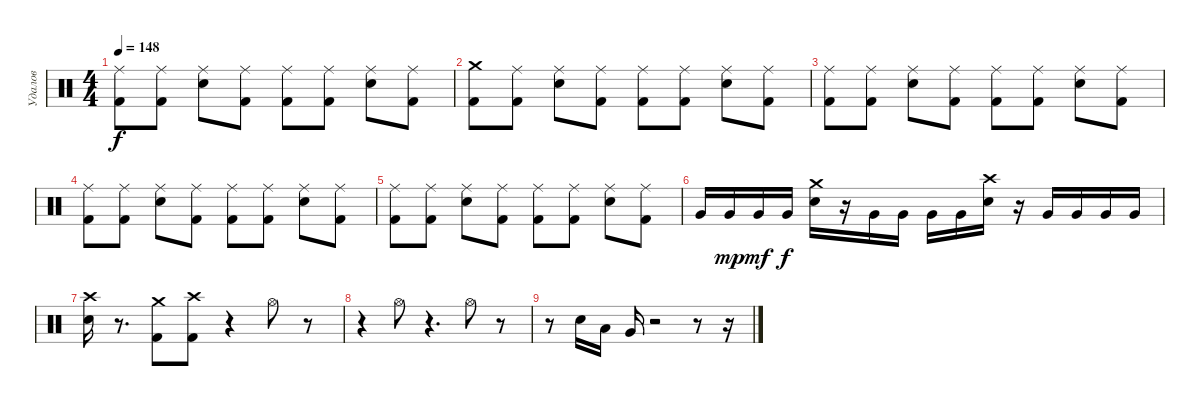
\track ("Удалов" "Удалов") {instrument percussion}
\staff {score}
\articulation defaults
\ts (4 4)
\tempo 148
\clef neutral
\ks c
("Kick (hit) 2" "Ride (middle)").8{dy f} ("Ride (middle)" "Kick (hit) 2").8 ("Ride (middle)" "Snare (hit) 2").8 ("Ride (middle)" "Kick (hit) 2").8 ("Ride (middle)" "Kick (hit) 2").8 ("Ride (middle)" "Kick (hit) 2").8 ("Ride (middle)" "Snare (hit) 2").8 ("Ride (middle)" "Kick (hit) 2").8 |
("Kick (hit) 2" "Crash medium (hit)").8 ("Ride (middle)" "Kick (hit) 2").8 ("Ride (middle)" "Snare (hit) 2").8 ("Ride (middle)" "Kick (hit) 2").8 ("Ride (middle)" "Kick (hit) 2").8 ("Ride (middle)" "Kick (hit) 2").8 ("Ride (middle)" "Snare (hit) 2").8 ("Ride (middle)" "Kick (hit) 2").8 |
("Kick (hit) 2" "Ride (middle)").8 ("Ride (middle)" "Kick (hit) 2").8 ("Ride (middle)" "Snare (hit) 2").8 ("Ride (middle)" "Kick (hit) 2").8 ("Ride (middle)" "Kick (hit) 2").8 ("Ride (middle)" "Kick (hit) 2").8 ("Ride (middle)" "Snare (hit) 2").8 ("Ride (middle)" "Kick (hit) 2").8 |
("Kick (hit) 2" "Ride (middle)").8 ("Ride (middle)" "Kick (hit) 2").8 ("Ride (middle)" "Snare (hit) 2").8 ("Ride (middle)" "Kick (hit) 2").8 ("Ride (middle)" "Kick (hit) 2").8 ("Ride (middle)" "Kick (hit) 2").8 ("Ride (middle)" "Snare (hit) 2").8 ("Ride (middle)" "Kick (hit) 2").8 |
("Kick (hit) 2" "Ride (middle)").8 ("Ride (middle)" "Kick (hit) 2").8 ("Ride (middle)" "Snare (hit) 2").8 ("Ride (middle)" "Kick (hit) 2").8 ("Ride (middle)" "Kick (hit) 2").8 ("Ride (middle)" "Kick (hit) 2").8 ("Ride (middle)" "Snare (hit) 2").8 ("Ride (middle)" "Kick (hit) 2").8 |
"Very Low Tom (hit)".16 "Very Low Tom (hit)".16{dy mp} "Very Low Tom (hit)".16{dy mf} "Very Low Tom (hit)".16{dy f} ("Crash medium (hit)" "Snare (hit) 2").16 r.16 "Very Low Tom (hit)".16 "Very Low Tom (hit)".16 "Very Low Tom (hit)".16 "Very Low Tom (hit)".16 ("Snare (hit) 2" "Crash high (hit)").16 r.16 "Very Low Tom (hit)".16 "Very Low Tom (hit)".16 "Very Low Tom (hit)".16 "Very Low Tom (hit)".16 |
("Snare (hit) 2" "Crash high (hit)").16 r.8{d} ("Kick (hit) 2" "Crash medium (hit)").8 ("Kick (hit) 2" "Crash high (hit)").8 r.4 "Hi-Hat (open)".8 r.8 |
r.4 "Hi-Hat (open)".8 r.4{d} "Hi-Hat (open)".8 r.8 |
r.8 "Snare (hit) 2".16 "Low Tom (hit)".16 "Very Low Tom (hit)".16 r.2 r.8 r.16
